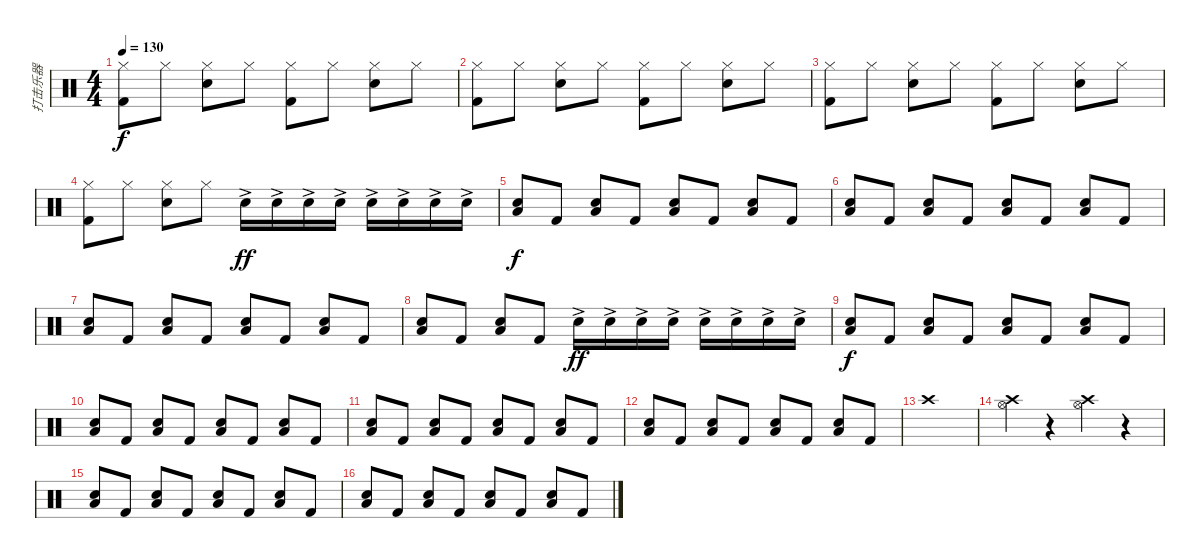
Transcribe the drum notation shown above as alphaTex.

\track ("打击乐器" "打击乐器") {instrument percussion}
\staff {score}
\articulation defaults
\ts (4 4)
\tempo 130
\clef neutral
\ks c
("Kick (hit) 2" "Hi-Hat (closed)").8{dy f} "Hi-Hat (closed)".8 ("Snare (hit) 2" "Hi-Hat (closed)").8 "Hi-Hat (closed)".8 ("Kick (hit) 2" "Hi-Hat (closed)").8 "Hi-Hat (closed)".8 ("Snare (hit) 2" "Hi-Hat (closed)").8 "Hi-Hat (closed)".8 |
("Kick (hit) 2" "Hi-Hat (closed)").8 "Hi-Hat (closed)".8 ("Snare (hit) 2" "Hi-Hat (closed)").8 "Hi-Hat (closed)".8 ("Kick (hit) 2" "Hi-Hat (closed)").8 "Hi-Hat (closed)".8 ("Snare (hit) 2" "Hi-Hat (closed)").8 "Hi-Hat (closed)".8 |
("Kick (hit) 2" "Hi-Hat (closed)").8 "Hi-Hat (closed)".8 ("Snare (hit) 2" "Hi-Hat (closed)").8 "Hi-Hat (closed)".8 ("Kick (hit) 2" "Hi-Hat (closed)").8 "Hi-Hat (closed)".8 ("Snare (hit) 2" "Hi-Hat (closed)").8 "Hi-Hat (closed)".8 |
("Kick (hit) 2" "Hi-Hat (closed)").8 "Hi-Hat (closed)".8 ("Snare (hit) 2" "Hi-Hat (closed)").8 "Hi-Hat (closed)".8 "Snare (hit) 2"{ac}.16{dy ff} "Snare (hit) 2"{ac}.16 "Snare (hit) 2"{ac}.16 "Snare (hit) 2"{ac}.16 "Snare (hit) 2"{ac}.16 "Snare (hit) 2"{ac}.16 "Snare (hit) 2"{ac}.16 "Snare (hit) 2"{ac}.16 |
("Snare (hit) 2" "Low Tom (hit)").8{dy f} "Kick (hit) 2".8 ("Snare (hit) 2" "Low Tom (hit)").8 "Kick (hit) 2".8 ("Snare (hit) 2" "Low Tom (hit)").8 "Kick (hit) 2".8 ("Snare (hit) 2" "Low Tom (hit)").8 "Kick (hit) 2".8 |
("Snare (hit) 2" "Low Tom (hit)").8 "Kick (hit) 2".8 ("Snare (hit) 2" "Low Tom (hit)").8 "Kick (hit) 2".8 ("Snare (hit) 2" "Low Tom (hit)").8 "Kick (hit) 2".8 ("Snare (hit) 2" "Low Tom (hit)").8 "Kick (hit) 2".8 |
("Snare (hit) 2" "Low Tom (hit)").8 "Kick (hit) 2".8 ("Snare (hit) 2" "Low Tom (hit)").8 "Kick (hit) 2".8 ("Snare (hit) 2" "Low Tom (hit)").8 "Kick (hit) 2".8 ("Snare (hit) 2" "Low Tom (hit)").8 "Kick (hit) 2".8 |
("Snare (hit) 2" "Low Tom (hit)").8 "Kick (hit) 2".8 ("Snare (hit) 2" "Low Tom (hit)").8 "Kick (hit) 2".8 "Snare (hit) 2"{ac}.16{dy ff} "Snare (hit) 2"{ac}.16 "Snare (hit) 2"{ac}.16 "Snare (hit) 2"{ac}.16 "Snare (hit) 2"{ac}.16 "Snare (hit) 2"{ac}.16 "Snare (hit) 2"{ac}.16 "Snare (hit) 2"{ac}.16 |
("Snare (hit) 2" "Low Tom (hit)").8{dy f} "Kick (hit) 2".8 ("Snare (hit) 2" "Low Tom (hit)").8 "Kick (hit) 2".8 ("Snare (hit) 2" "Low Tom (hit)").8 "Kick (hit) 2".8 ("Snare (hit) 2" "Low Tom (hit)").8 "Kick (hit) 2".8 |
("Snare (hit) 2" "Low Tom (hit)").8 "Kick (hit) 2".8 ("Snare (hit) 2" "Low Tom (hit)").8 "Kick (hit) 2".8 ("Snare (hit) 2" "Low Tom (hit)").8 "Kick (hit) 2".8 ("Snare (hit) 2" "Low Tom (hit)").8 "Kick (hit) 2".8 |
("Snare (hit) 2" "Low Tom (hit)").8 "Kick (hit) 2".8 ("Snare (hit) 2" "Low Tom (hit)").8 "Kick (hit) 2".8 ("Snare (hit) 2" "Low Tom (hit)").8 "Kick (hit) 2".8 ("Snare (hit) 2" "Low Tom (hit)").8 "Kick (hit) 2".8 |
("Snare (hit) 2" "Low Tom (hit)").8 "Kick (hit) 2".8 ("Snare (hit) 2" "Low Tom (hit)").8 "Kick (hit) 2".8 ("Snare (hit) 2" "Low Tom (hit)").8 "Kick (hit) 2".8 ("Snare (hit) 2" "Low Tom (hit)").8 "Kick (hit) 2".8 |
"Crash high (hit)".1 |
("Crash high (hit)" "Hi-Hat (open)").4 r.4 ("Crash high (hit)" "Hi-Hat (open)").4 r.4 |
("Snare (hit) 2" "Low Tom (hit)").8 "Kick (hit) 2".8 ("Snare (hit) 2" "Low Tom (hit)").8 "Kick (hit) 2".8 ("Snare (hit) 2" "Low Tom (hit)").8 "Kick (hit) 2".8 ("Snare (hit) 2" "Low Tom (hit)").8 "Kick (hit) 2".8 |
("Snare (hit) 2" "Low Tom (hit)").8 "Kick (hit) 2".8 ("Snare (hit) 2" "Low Tom (hit)").8 "Kick (hit) 2".8 ("Snare (hit) 2" "Low Tom (hit)").8 "Kick (hit) 2".8 ("Snare (hit) 2" "Low Tom (hit)").8 "Kick (hit) 2".8
